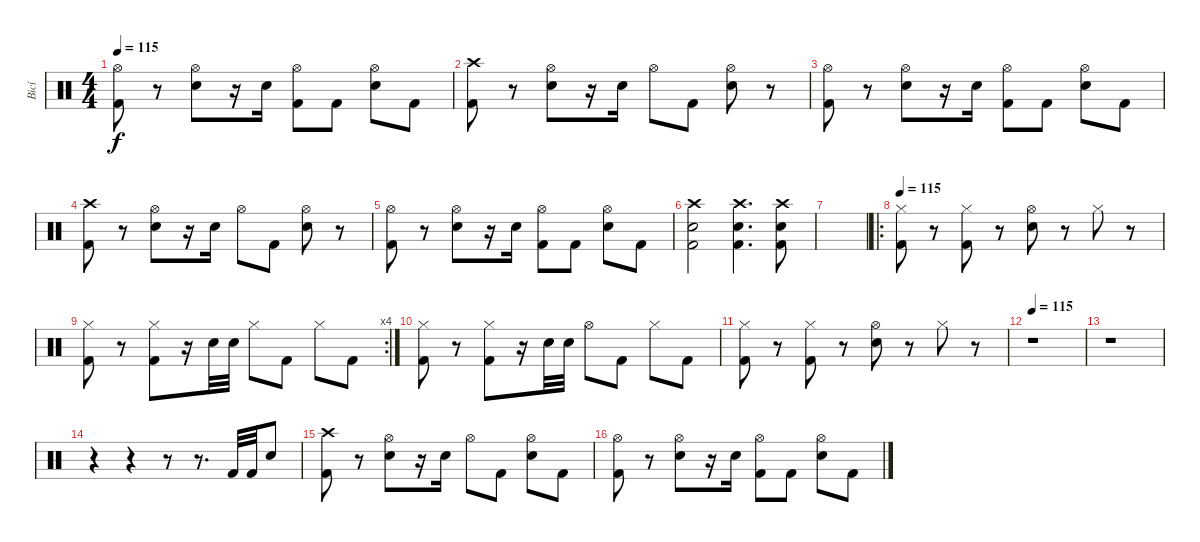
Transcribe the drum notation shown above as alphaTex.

\track ("Bicí" "Bicí") {instrument percussion}
\staff {score}
\articulation defaults
\ts (4 4)
\tempo 115
\clef neutral
\ks c
("Hi-Hat (open)" "Kick (hit) 2").8{dy f} r.8 ("Hi-Hat (open)" "Snare (hit) 2").8 r.16 "Snare (hit) 2".16 ("Hi-Hat (open)" "Kick (hit) 2").8 "Kick (hit) 2".8 ("Hi-Hat (open)" "Snare (hit) 2").8 "Kick (hit) 2".8 |
("Crash high (hit)" "Kick (hit) 2").8 r.8 ("Hi-Hat (open)" "Snare (hit) 2").8 r.16 "Snare (hit) 2".16 "Hi-Hat (open)".8 "Kick (hit) 2".8 ("Hi-Hat (open)" "Snare (hit) 2").8 r.8 |
("Hi-Hat (open)" "Kick (hit) 2").8 r.8 ("Hi-Hat (open)" "Snare (hit) 2").8 r.16 "Snare (hit) 2".16 ("Hi-Hat (open)" "Kick (hit) 2").8 "Kick (hit) 2".8 ("Hi-Hat (open)" "Snare (hit) 2").8 "Kick (hit) 2".8 |
("Crash high (hit)" "Kick (hit) 2").8 r.8 ("Hi-Hat (open)" "Snare (hit) 2").8 r.16 "Snare (hit) 2".16 "Hi-Hat (open)".8 "Kick (hit) 2".8 ("Hi-Hat (open)" "Snare (hit) 2").8 r.8 |
("Hi-Hat (open)" "Kick (hit) 2").8 r.8 ("Hi-Hat (open)" "Snare (hit) 2").8 r.16 "Snare (hit) 2".16 ("Hi-Hat (open)" "Kick (hit) 2").8 "Kick (hit) 2".8 ("Hi-Hat (open)" "Snare (hit) 2").8 "Kick (hit) 2".8 |
("Crash high (hit)" "Snare (hit) 2" "Kick (hit) 2").2 ("Crash high (hit)" "Snare (hit) 2" "Kick (hit) 2").4{d} ("Crash high (hit)" "Snare (hit) 2" "Kick (hit) 2").8 |
|
\ro
\tempo 115
("Hi-Hat (closed)" "Kick (hit) 2").8 r.8 ("Hi-Hat (closed)" "Kick (hit) 2").8 r.8 ("Hi-Hat (open)" "Snare (hit) 2").8 r.8 "Hi-Hat (closed)".8 r.8 |
\rc 4
("Hi-Hat (closed)" "Kick (hit) 2").8 r.8 ("Hi-Hat (closed)" "Kick (hit) 2").8 r.16 "Snare (hit) 2".32 "Snare (hit) 2".32 "Hi-Hat (closed)".8 "Kick (hit) 2".8 "Hi-Hat (closed)".8 "Kick (hit) 2".8 |
("Hi-Hat (closed)" "Kick (hit) 2").8 r.8 ("Hi-Hat (closed)" "Kick (hit) 2").8 r.16 "Snare (hit) 2".32 "Snare (hit) 2".32 "Hi-Hat (open)".8 "Kick (hit) 2".8 "Hi-Hat (closed)".8 "Kick (hit) 2".8 |
("Hi-Hat (closed)" "Kick (hit) 2").8 r.8 ("Hi-Hat (closed)" "Kick (hit) 2").8 r.8 ("Hi-Hat (open)" "Snare (hit) 2").8 r.8 "Hi-Hat (closed)".8 r.8 |
\tempo 115
r.1 |
r.1 |
r.4 r.4 r.8 r.8{d} "Kick (hit) 2".32 "Kick (hit) 2".32 "Snare (hit) 2".8 |
("Crash high (hit)" "Kick (hit) 2").8 r.8 ("Hi-Hat (open)" "Snare (hit) 2").8 r.16 "Snare (hit) 2".16 "Hi-Hat (open)".8 "Kick (hit) 2".8 ("Hi-Hat (open)" "Snare (hit) 2").8 "Kick (hit) 2".8 |
("Hi-Hat (open)" "Kick (hit) 2").8 r.8 ("Hi-Hat (open)" "Snare (hit) 2").8 r.16 "Snare (hit) 2".16 ("Hi-Hat (open)" "Kick (hit) 2").8 "Kick (hit) 2".8 ("Hi-Hat (open)" "Snare (hit) 2").8 "Kick (hit) 2".8
